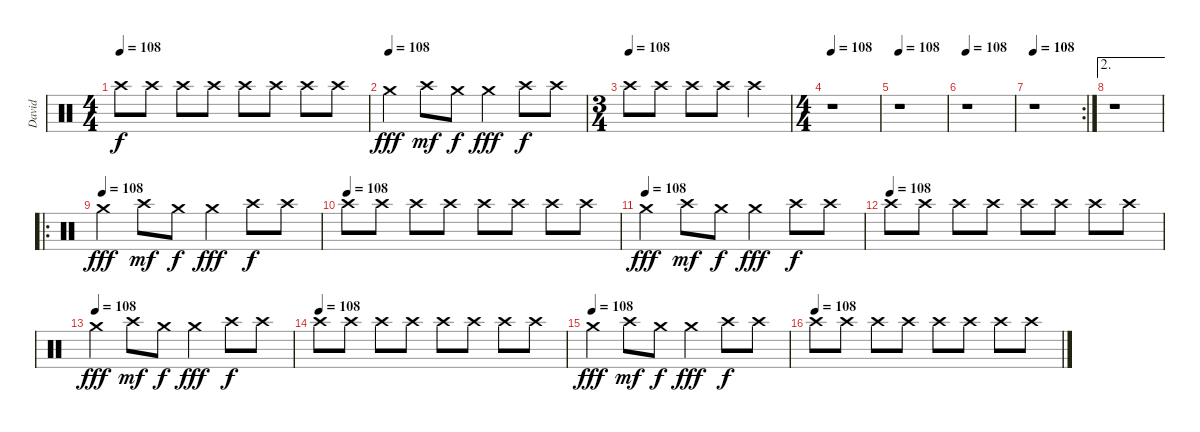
\track ("David" "David") {instrument percussion}
\staff {score}
\articulation defaults
\ts (4 4)
\tempo 108
\clef neutral
\ks c "Crash high (hit)".8{dy f} "Crash high (hit)".8 "Crash high (hit)".8 "Crash high (hit)".8 "Crash high (hit)".8 "Crash high (hit)".8 "Crash high (hit)".8 "Crash high (hit)".8
|
\tempo (108)
"Crash medium (hit)".4{dy fff} "Crash high (hit)".8{dy mf} "Crash medium (hit)".8{dy f} "Crash medium (hit)".4{dy fff} "Crash high (hit)".8{dy f} "Crash high (hit)".8 |
\ts (3 4)
\tempo (108)
"Crash high (hit)".8 "Crash high (hit)".8 "Crash high (hit)".8 "Crash high (hit)".8 "Crash high (hit)".4 |
\ts (4 4)
\tempo 108
r.1 |
\tempo 108
r.1 |
\tempo 108
r.1 |
\rc 2
\tempo 108
r.1 |
\ae 2
r.1 |
\ro
\tempo (108)
"Crash medium (hit)".4{dy fff} "Crash high (hit)".8{dy mf} "Crash medium (hit)".8{dy f} "Crash medium (hit)".4{dy fff} "Crash high (hit)".8{dy f} "Crash high (hit)".8 |
\tempo (108)
"Crash high (hit)".8 "Crash high (hit)".8 "Crash high (hit)".8 "Crash high (hit)".8 "Crash high (hit)".8 "Crash high (hit)".8 "Crash high (hit)".8 "Crash high (hit)".8 |
\tempo (108)
"Crash medium (hit)".4{dy fff} "Crash high (hit)".8{dy mf} "Crash medium (hit)".8{dy f} "Crash medium (hit)".4{dy fff} "Crash high (hit)".8{dy f} "Crash high (hit)".8 |
\tempo (108)
"Crash high (hit)".8 "Crash high (hit)".8 "Crash high (hit)".8 "Crash high (hit)".8 "Crash high (hit)".8 "Crash high (hit)".8 "Crash high (hit)".8 "Crash high (hit)".8 |
\tempo (108)
"Crash medium (hit)".4{dy fff} "Crash high (hit)".8{dy mf} "Crash medium (hit)".8{dy f} "Crash medium (hit)".4{dy fff} "Crash high (hit)".8{dy f} "Crash high (hit)".8 |
\tempo (108)
"Crash high (hit)".8 "Crash high (hit)".8 "Crash high (hit)".8 "Crash high (hit)".8 "Crash high (hit)".8 "Crash high (hit)".8 "Crash high (hit)".8 "Crash high (hit)".8 |
\tempo (108)
"Crash medium (hit)".4{dy fff} "Crash high (hit)".8{dy mf} "Crash medium (hit)".8{dy f} "Crash medium (hit)".4{dy fff} "Crash high (hit)".8{dy f} "Crash high (hit)".8 |
\tempo (108)
"Crash high (hit)".8 "Crash high (hit)".8 "Crash high (hit)".8 "Crash high (hit)".8 "Crash high (hit)".8 "Crash high (hit)".8 "Crash high (hit)".8 "Crash high (hit)".8
